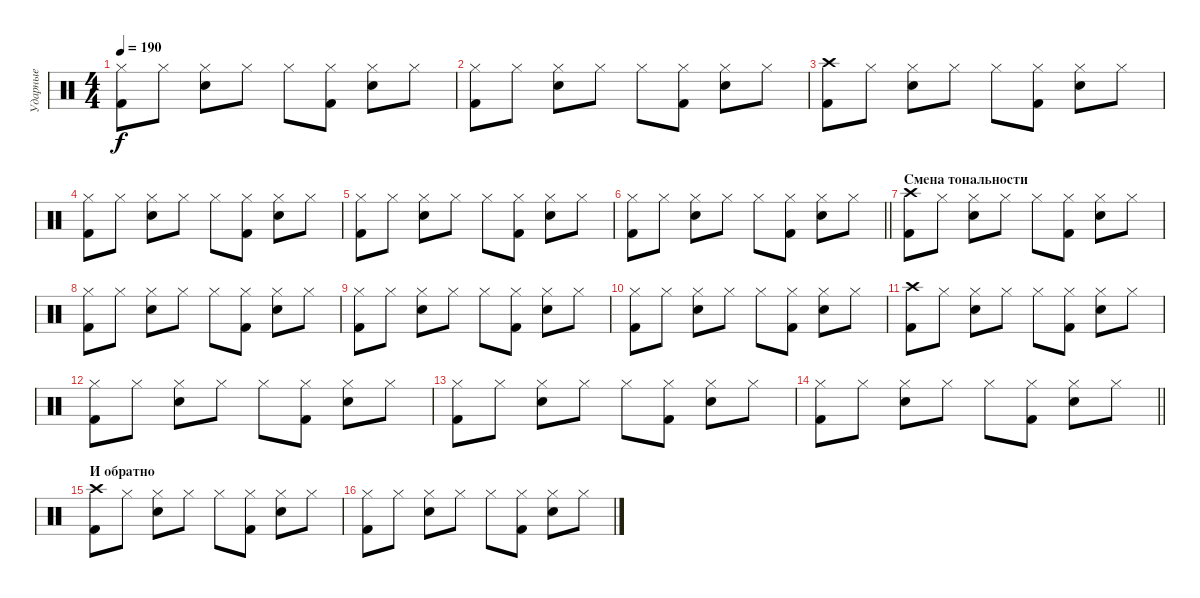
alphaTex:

\track ("Ударные" "Ударные") {instrument percussion}
\staff {score}
\articulation defaults
\ts (4 4)
\tempo 190
\clef neutral
\ks c
("Hi-Hat (closed)" "Kick (hit) 2").8{dy f} "Hi-Hat (closed)".8 ("Hi-Hat (closed)" "Snare (hit) 2").8 "Hi-Hat (closed)".8 "Hi-Hat (closed)".8 ("Hi-Hat (closed)" "Kick (hit) 2").8 ("Hi-Hat (closed)" "Snare (hit) 2").8 "Hi-Hat (closed)".8 |
("Hi-Hat (closed)" "Kick (hit) 2").8 "Hi-Hat (closed)".8 ("Hi-Hat (closed)" "Snare (hit) 2").8 "Hi-Hat (closed)".8 "Hi-Hat (closed)".8 ("Hi-Hat (closed)" "Kick (hit) 2").8 ("Hi-Hat (closed)" "Snare (hit) 2").8 "Hi-Hat (closed)".8 |
("Crash high (hit)" "Kick (hit) 2").8 "Hi-Hat (closed)".8 ("Hi-Hat (closed)" "Snare (hit) 2").8 "Hi-Hat (closed)".8 "Hi-Hat (closed)".8 ("Hi-Hat (closed)" "Kick (hit) 2").8 ("Hi-Hat (closed)" "Snare (hit) 2").8 "Hi-Hat (closed)".8 |
("Hi-Hat (closed)" "Kick (hit) 2").8 "Hi-Hat (closed)".8 ("Hi-Hat (closed)" "Snare (hit) 2").8 "Hi-Hat (closed)".8 "Hi-Hat (closed)".8 ("Hi-Hat (closed)" "Kick (hit) 2").8 ("Hi-Hat (closed)" "Snare (hit) 2").8 "Hi-Hat (closed)".8 |
("Hi-Hat (closed)" "Kick (hit) 2").8 "Hi-Hat (closed)".8 ("Hi-Hat (closed)" "Snare (hit) 2").8 "Hi-Hat (closed)".8 "Hi-Hat (closed)".8 ("Hi-Hat (closed)" "Kick (hit) 2").8 ("Hi-Hat (closed)" "Snare (hit) 2").8 "Hi-Hat (closed)".8 |
\barLineRight lightlight
("Hi-Hat (closed)" "Kick (hit) 2").8 "Hi-Hat (closed)".8 ("Hi-Hat (closed)" "Snare (hit) 2").8 "Hi-Hat (closed)".8 "Hi-Hat (closed)".8 ("Hi-Hat (closed)" "Kick (hit) 2").8 ("Hi-Hat (closed)" "Snare (hit) 2").8 "Hi-Hat (closed)".8 |
\section ("" "Смена тональности")
("Crash high (hit)" "Kick (hit) 2").8 "Hi-Hat (closed)".8 ("Hi-Hat (closed)" "Snare (hit) 2").8 "Hi-Hat (closed)".8 "Hi-Hat (closed)".8 ("Hi-Hat (closed)" "Kick (hit) 2").8 ("Hi-Hat (closed)" "Snare (hit) 2").8 "Hi-Hat (closed)".8 |
("Hi-Hat (closed)" "Kick (hit) 2").8 "Hi-Hat (closed)".8 ("Hi-Hat (closed)" "Snare (hit) 2").8 "Hi-Hat (closed)".8 "Hi-Hat (closed)".8 ("Hi-Hat (closed)" "Kick (hit) 2").8 ("Hi-Hat (closed)" "Snare (hit) 2").8 "Hi-Hat (closed)".8 |
("Hi-Hat (closed)" "Kick (hit) 2").8 "Hi-Hat (closed)".8 ("Hi-Hat (closed)" "Snare (hit) 2").8 "Hi-Hat (closed)".8 "Hi-Hat (closed)".8 ("Hi-Hat (closed)" "Kick (hit) 2").8 ("Hi-Hat (closed)" "Snare (hit) 2").8 "Hi-Hat (closed)".8 |
("Hi-Hat (closed)" "Kick (hit) 2").8 "Hi-Hat (closed)".8 ("Hi-Hat (closed)" "Snare (hit) 2").8 "Hi-Hat (closed)".8 "Hi-Hat (closed)".8 ("Hi-Hat (closed)" "Kick (hit) 2").8 ("Hi-Hat (closed)" "Snare (hit) 2").8 "Hi-Hat (closed)".8 |
("Crash high (hit)" "Kick (hit) 2").8 "Hi-Hat (closed)".8 ("Hi-Hat (closed)" "Snare (hit) 2").8 "Hi-Hat (closed)".8 "Hi-Hat (closed)".8 ("Hi-Hat (closed)" "Kick (hit) 2").8 ("Hi-Hat (closed)" "Snare (hit) 2").8 "Hi-Hat (closed)".8 |
("Hi-Hat (closed)" "Kick (hit) 2").8 "Hi-Hat (closed)".8 ("Hi-Hat (closed)" "Snare (hit) 2").8 "Hi-Hat (closed)".8 "Hi-Hat (closed)".8 ("Hi-Hat (closed)" "Kick (hit) 2").8 ("Hi-Hat (closed)" "Snare (hit) 2").8 "Hi-Hat (closed)".8 |
("Hi-Hat (closed)" "Kick (hit) 2").8 "Hi-Hat (closed)".8 ("Hi-Hat (closed)" "Snare (hit) 2").8 "Hi-Hat (closed)".8 "Hi-Hat (closed)".8 ("Hi-Hat (closed)" "Kick (hit) 2").8 ("Hi-Hat (closed)" "Snare (hit) 2").8 "Hi-Hat (closed)".8 |
\barLineRight lightlight
("Hi-Hat (closed)" "Kick (hit) 2").8 "Hi-Hat (closed)".8 ("Hi-Hat (closed)" "Snare (hit) 2").8 "Hi-Hat (closed)".8 "Hi-Hat (closed)".8 ("Hi-Hat (closed)" "Kick (hit) 2").8 ("Hi-Hat (closed)" "Snare (hit) 2").8 "Hi-Hat (closed)".8 |
\section ("" "И обратно")
("Crash high (hit)" "Kick (hit) 2").8 "Hi-Hat (closed)".8 ("Hi-Hat (closed)" "Snare (hit) 2").8 "Hi-Hat (closed)".8 "Hi-Hat (closed)".8 ("Hi-Hat (closed)" "Kick (hit) 2").8 ("Hi-Hat (closed)" "Snare (hit) 2").8 "Hi-Hat (closed)".8 |
("Hi-Hat (closed)" "Kick (hit) 2").8 "Hi-Hat (closed)".8 ("Hi-Hat (closed)" "Snare (hit) 2").8 "Hi-Hat (closed)".8 "Hi-Hat (closed)".8 ("Hi-Hat (closed)" "Kick (hit) 2").8 ("Hi-Hat (closed)" "Snare (hit) 2").8 "Hi-Hat (closed)".8
